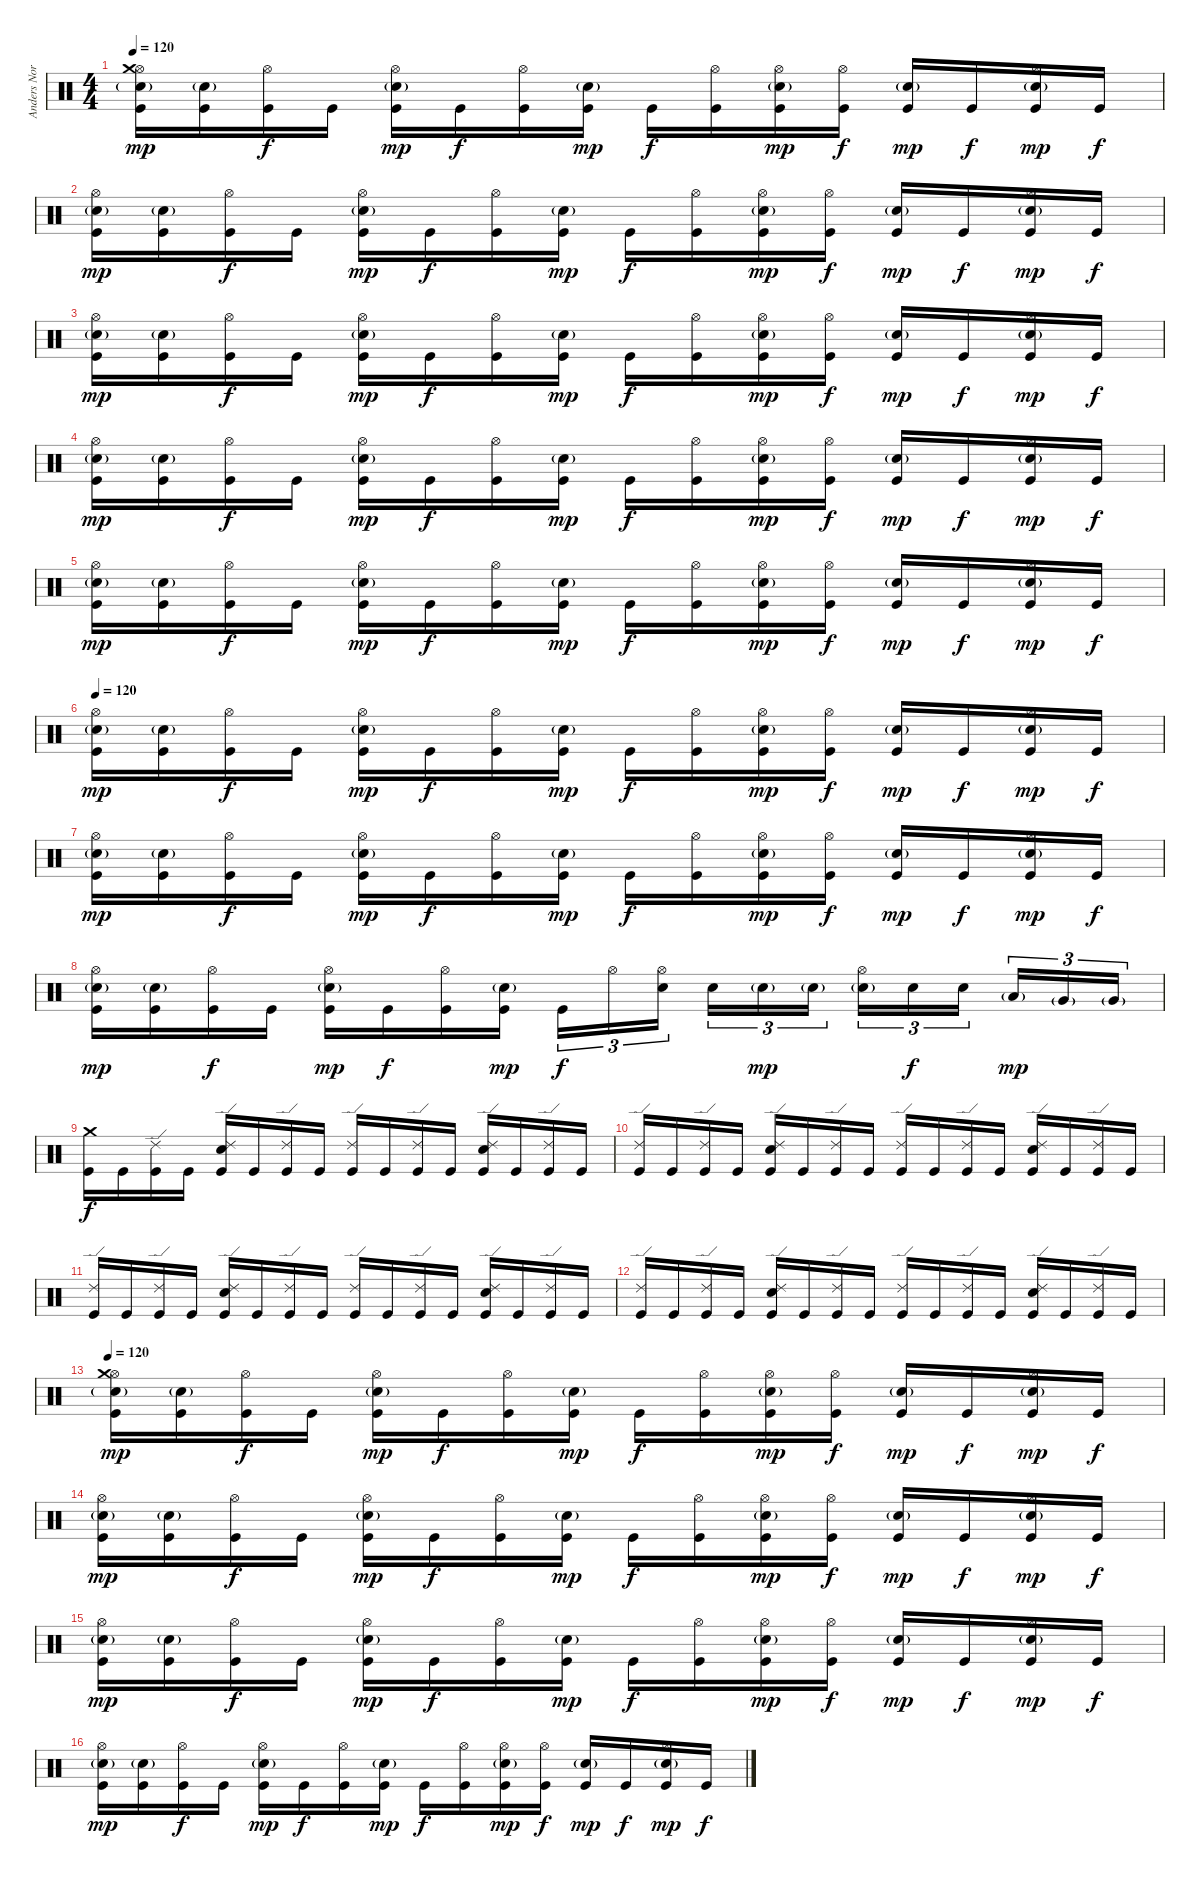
\track ("Anders Nordin" "Anders Nor") {instrument percussion}
\staff {score}
\articulation defaults
\ts (4 4)
\tempo 120
\clef neutral
\ks c
("Snare (hit) 2"{g} "Hi-Hat (open)" "Crash medium (hit)" "Kick (hit)").16{dy mp} ("Snare (hit) 2"{g} "Kick (hit)").16 ("Hi-Hat (open)" "Kick (hit)").16{dy f} "Kick (hit)".16 ("Snare (hit) 2"{g} "Hi-Hat (open)" "Kick (hit)").16{dy mp} "Kick (hit)".16{dy f} ("Hi-Hat (open)" "Kick (hit)").16 ("Snare (hit) 2"{g} "Kick (hit)").16{dy mp} "Kick (hit)".16{dy f} ("Hi-Hat (open)" "Kick (hit)").16 ("Snare (hit) 2"{g} "Hi-Hat (open)" "Kick (hit)").16{dy mp} ("Hi-Hat (open)" "Kick (hit)").16{dy f} ("Snare (hit) 2"{g} "Kick (hit)").16{dy mp} "Kick (hit)".16{dy f} ("Snare (hit) 2"{g} "Hi-Hat (open)" "Kick (hit)").16{dy mp} "Kick (hit)".16{dy f} |
("Snare (hit) 2"{g} "Hi-Hat (open)" "Kick (hit)").16{dy mp} ("Snare (hit) 2"{g} "Kick (hit)").16 ("Hi-Hat (open)" "Kick (hit)").16{dy f} "Kick (hit)".16 ("Snare (hit) 2"{g} "Hi-Hat (open)" "Kick (hit)").16{dy mp} "Kick (hit)".16{dy f} ("Hi-Hat (open)" "Kick (hit)").16 ("Snare (hit) 2"{g} "Kick (hit)").16{dy mp} "Kick (hit)".16{dy f} ("Hi-Hat (open)" "Kick (hit)").16 ("Snare (hit) 2"{g} "Hi-Hat (open)" "Kick (hit)").16{dy mp} ("Hi-Hat (open)" "Kick (hit)").16{dy f} ("Snare (hit) 2"{g} "Kick (hit)").16{dy mp} "Kick (hit)".16{dy f} ("Snare (hit) 2"{g} "Hi-Hat (open)" "Kick (hit)").16{dy mp} "Kick (hit)".16{dy f} |
("Snare (hit) 2"{g} "Hi-Hat (open)" "Kick (hit)").16{dy mp} ("Snare (hit) 2"{g} "Kick (hit)").16 ("Hi-Hat (open)" "Kick (hit)").16{dy f} "Kick (hit)".16 ("Snare (hit) 2"{g} "Hi-Hat (open)" "Kick (hit)").16{dy mp} "Kick (hit)".16{dy f} ("Hi-Hat (open)" "Kick (hit)").16 ("Snare (hit) 2"{g} "Kick (hit)").16{dy mp} "Kick (hit)".16{dy f} ("Hi-Hat (open)" "Kick (hit)").16 ("Snare (hit) 2"{g} "Hi-Hat (open)" "Kick (hit)").16{dy mp} ("Hi-Hat (open)" "Kick (hit)").16{dy f} ("Snare (hit) 2"{g} "Kick (hit)").16{dy mp} "Kick (hit)".16{dy f} ("Snare (hit) 2"{g} "Hi-Hat (open)" "Kick (hit)").16{dy mp} "Kick (hit)".16{dy f} |
("Snare (hit) 2"{g} "Hi-Hat (open)" "Kick (hit)").16{dy mp} ("Snare (hit) 2"{g} "Kick (hit)").16 ("Hi-Hat (open)" "Kick (hit)").16{dy f} "Kick (hit)".16 ("Snare (hit) 2"{g} "Hi-Hat (open)" "Kick (hit)").16{dy mp} "Kick (hit)".16{dy f} ("Hi-Hat (open)" "Kick (hit)").16 ("Snare (hit) 2"{g} "Kick (hit)").16{dy mp} "Kick (hit)".16{dy f} ("Hi-Hat (open)" "Kick (hit)").16 ("Snare (hit) 2"{g} "Hi-Hat (open)" "Kick (hit)").16{dy mp} ("Hi-Hat (open)" "Kick (hit)").16{dy f} ("Snare (hit) 2"{g} "Kick (hit)").16{dy mp} "Kick (hit)".16{dy f} ("Snare (hit) 2"{g} "Hi-Hat (open)" "Kick (hit)").16{dy mp} "Kick (hit)".16{dy f} |
("Snare (hit) 2"{g} "Hi-Hat (open)" "Kick (hit)").16{dy mp} ("Snare (hit) 2"{g} "Kick (hit)").16 ("Hi-Hat (open)" "Kick (hit)").16{dy f} "Kick (hit)".16 ("Snare (hit) 2"{g} "Hi-Hat (open)" "Kick (hit)").16{dy mp} "Kick (hit)".16{dy f} ("Hi-Hat (open)" "Kick (hit)").16 ("Snare (hit) 2"{g} "Kick (hit)").16{dy mp} "Kick (hit)".16{dy f} ("Hi-Hat (open)" "Kick (hit)").16 ("Snare (hit) 2"{g} "Hi-Hat (open)" "Kick (hit)").16{dy mp} ("Hi-Hat (open)" "Kick (hit)").16{dy f} ("Snare (hit) 2"{g} "Kick (hit)").16{dy mp} "Kick (hit)".16{dy f} ("Snare (hit) 2"{g} "Hi-Hat (open)" "Kick (hit)").16{dy mp} "Kick (hit)".16{dy f} |
\tempo 120
("Snare (hit) 2"{g} "Hi-Hat (open)" "Kick (hit)").16{dy mp} ("Snare (hit) 2"{g} "Kick (hit)").16 ("Hi-Hat (open)" "Kick (hit)").16{dy f} "Kick (hit)".16 ("Snare (hit) 2"{g} "Hi-Hat (open)" "Kick (hit)").16{dy mp} "Kick (hit)".16{dy f} ("Hi-Hat (open)" "Kick (hit)").16 ("Snare (hit) 2"{g} "Kick (hit)").16{dy mp} "Kick (hit)".16{dy f} ("Hi-Hat (open)" "Kick (hit)").16 ("Snare (hit) 2"{g} "Hi-Hat (open)" "Kick (hit)").16{dy mp} ("Hi-Hat (open)" "Kick (hit)").16{dy f} ("Snare (hit) 2"{g} "Kick (hit)").16{dy mp} "Kick (hit)".16{dy f} ("Snare (hit) 2"{g} "Hi-Hat (open)" "Kick (hit)").16{dy mp} "Kick (hit)".16{dy f} |
("Snare (hit) 2"{g} "Hi-Hat (open)" "Kick (hit)").16{dy mp} ("Snare (hit) 2"{g} "Kick (hit)").16 ("Hi-Hat (open)" "Kick (hit)").16{dy f} "Kick (hit)".16 ("Snare (hit) 2"{g} "Hi-Hat (open)" "Kick (hit)").16{dy mp} "Kick (hit)".16{dy f} ("Hi-Hat (open)" "Kick (hit)").16 ("Snare (hit) 2"{g} "Kick (hit)").16{dy mp} "Kick (hit)".16{dy f} ("Hi-Hat (open)" "Kick (hit)").16 ("Snare (hit) 2"{g} "Hi-Hat (open)" "Kick (hit)").16{dy mp} ("Hi-Hat (open)" "Kick (hit)").16{dy f} ("Snare (hit) 2"{g} "Kick (hit)").16{dy mp} "Kick (hit)".16{dy f} ("Snare (hit) 2"{g} "Hi-Hat (open)" "Kick (hit)").16{dy mp} "Kick (hit)".16{dy f} |
("Snare (hit) 2"{g} "Hi-Hat (open)" "Kick (hit)").16{dy mp} ("Snare (hit) 2"{g} "Kick (hit)").16 ("Hi-Hat (open)" "Kick (hit)").16{dy f} "Kick (hit)".16 ("Snare (hit) 2"{g} "Hi-Hat (open)" "Kick (hit)").16{dy mp} "Kick (hit)".16{dy f} ("Hi-Hat (open)" "Kick (hit)").16 ("Snare (hit) 2"{g} "Kick (hit)").16{dy mp} "Kick (hit)".16{tu (3 2) dy f} "Hi-Hat (open)".16{tu (3 2)} ("Snare (hit) 2" "Hi-Hat (open)").16{tu (3 2) beam splitsecondary} "Snare (hit) 2".16{tu (3 2)} "Snare (hit) 2"{g}.16{tu (3 2) dy mp} "Snare (hit) 2"{g}.16{tu (3 2)} ("Snare (hit) 2"{g} "Hi-Hat (open)").16{tu (3 2)} "Snare (hit) 2".16{tu (3 2) dy f} "Snare (hit) 2".16{tu (3 2) beam splitsecondary} "Low Tom (hit)"{g}.16{tu (3 2) dy mp} "Very Low Tom (hit)"{g}.16{tu (3 2)} "Very Low Tom (hit)"{g}.16{tu (3 2)} |
("Crash medium (hit)" "Kick (hit)").16{dy f} "Kick (hit)".16 ("Ride (edge) 2" "Kick (hit)").16 "Kick (hit)".16 ("Ride (edge) 2" "Snare (hit) 2" "Kick (hit)").16 "Kick (hit)".16 ("Ride (edge) 2" "Kick (hit)").16 "Kick (hit)".16 ("Ride (edge) 2" "Kick (hit)").16 "Kick (hit)".16 ("Ride (edge) 2" "Kick (hit)").16 "Kick (hit)".16 ("Ride (edge) 2" "Snare (hit) 2" "Kick (hit)").16 "Kick (hit)".16 ("Ride (edge) 2" "Kick (hit)").16 "Kick (hit)".16 |
("Ride (edge) 2" "Kick (hit)").16 "Kick (hit)".16 ("Ride (edge) 2" "Kick (hit)").16 "Kick (hit)".16 ("Ride (edge) 2" "Snare (hit) 2" "Kick (hit)").16 "Kick (hit)".16 ("Ride (edge) 2" "Kick (hit)").16 "Kick (hit)".16 ("Ride (edge) 2" "Kick (hit)").16 "Kick (hit)".16 ("Ride (edge) 2" "Kick (hit)").16 "Kick (hit)".16 ("Ride (edge) 2" "Snare (hit) 2" "Kick (hit)").16 "Kick (hit)".16 ("Ride (edge) 2" "Kick (hit)").16 "Kick (hit)".16 |
("Ride (edge) 2" "Kick (hit)").16 "Kick (hit)".16 ("Ride (edge) 2" "Kick (hit)").16 "Kick (hit)".16 ("Ride (edge) 2" "Snare (hit) 2" "Kick (hit)").16 "Kick (hit)".16 ("Ride (edge) 2" "Kick (hit)").16 "Kick (hit)".16 ("Ride (edge) 2" "Kick (hit)").16 "Kick (hit)".16 ("Ride (edge) 2" "Kick (hit)").16 "Kick (hit)".16 ("Ride (edge) 2" "Snare (hit) 2" "Kick (hit)").16 "Kick (hit)".16 ("Ride (edge) 2" "Kick (hit)").16 "Kick (hit)".16 |
("Ride (edge) 2" "Kick (hit)").16 "Kick (hit)".16 ("Ride (edge) 2" "Kick (hit)").16 "Kick (hit)".16 ("Ride (edge) 2" "Snare (hit) 2" "Kick (hit)").16 "Kick (hit)".16 ("Ride (edge) 2" "Kick (hit)").16 "Kick (hit)".16 ("Ride (edge) 2" "Kick (hit)").16 "Kick (hit)".16 ("Ride (edge) 2" "Kick (hit)").16 "Kick (hit)".16 ("Ride (edge) 2" "Snare (hit) 2" "Kick (hit)").16 "Kick (hit)".16 ("Ride (edge) 2" "Kick (hit)").16 "Kick (hit)".16 |
\tempo 120
("Snare (hit) 2"{g} "Hi-Hat (open)" "Crash medium (hit)" "Kick (hit)").16{dy mp} ("Snare (hit) 2"{g} "Kick (hit)").16 ("Hi-Hat (open)" "Kick (hit)").16{dy f} "Kick (hit)".16 ("Snare (hit) 2"{g} "Hi-Hat (open)" "Kick (hit)").16{dy mp} "Kick (hit)".16{dy f} ("Hi-Hat (open)" "Kick (hit)").16 ("Snare (hit) 2"{g} "Kick (hit)").16{dy mp} "Kick (hit)".16{dy f} ("Hi-Hat (open)" "Kick (hit)").16 ("Snare (hit) 2"{g} "Hi-Hat (open)" "Kick (hit)").16{dy mp} ("Hi-Hat (open)" "Kick (hit)").16{dy f} ("Snare (hit) 2"{g} "Kick (hit)").16{dy mp} "Kick (hit)".16{dy f} ("Snare (hit) 2"{g} "Hi-Hat (open)" "Kick (hit)").16{dy mp} "Kick (hit)".16{dy f} |
("Snare (hit) 2"{g} "Hi-Hat (open)" "Kick (hit)").16{dy mp} ("Snare (hit) 2"{g} "Kick (hit)").16 ("Hi-Hat (open)" "Kick (hit)").16{dy f} "Kick (hit)".16 ("Snare (hit) 2"{g} "Hi-Hat (open)" "Kick (hit)").16{dy mp} "Kick (hit)".16{dy f} ("Hi-Hat (open)" "Kick (hit)").16 ("Snare (hit) 2"{g} "Kick (hit)").16{dy mp} "Kick (hit)".16{dy f} ("Hi-Hat (open)" "Kick (hit)").16 ("Snare (hit) 2"{g} "Hi-Hat (open)" "Kick (hit)").16{dy mp} ("Hi-Hat (open)" "Kick (hit)").16{dy f} ("Snare (hit) 2"{g} "Kick (hit)").16{dy mp} "Kick (hit)".16{dy f} ("Snare (hit) 2"{g} "Hi-Hat (open)" "Kick (hit)").16{dy mp} "Kick (hit)".16{dy f} |
("Snare (hit) 2"{g} "Hi-Hat (open)" "Kick (hit)").16{dy mp} ("Snare (hit) 2"{g} "Kick (hit)").16 ("Hi-Hat (open)" "Kick (hit)").16{dy f} "Kick (hit)".16 ("Snare (hit) 2"{g} "Hi-Hat (open)" "Kick (hit)").16{dy mp} "Kick (hit)".16{dy f} ("Hi-Hat (open)" "Kick (hit)").16 ("Snare (hit) 2"{g} "Kick (hit)").16{dy mp} "Kick (hit)".16{dy f} ("Hi-Hat (open)" "Kick (hit)").16 ("Snare (hit) 2"{g} "Hi-Hat (open)" "Kick (hit)").16{dy mp} ("Hi-Hat (open)" "Kick (hit)").16{dy f} ("Snare (hit) 2"{g} "Kick (hit)").16{dy mp} "Kick (hit)".16{dy f} ("Snare (hit) 2"{g} "Hi-Hat (open)" "Kick (hit)").16{dy mp} "Kick (hit)".16{dy f} |
("Snare (hit) 2"{g} "Hi-Hat (open)" "Kick (hit)").16{dy mp} ("Snare (hit) 2"{g} "Kick (hit)").16 ("Hi-Hat (open)" "Kick (hit)").16{dy f} "Kick (hit)".16 ("Snare (hit) 2"{g} "Hi-Hat (open)" "Kick (hit)").16{dy mp} "Kick (hit)".16{dy f} ("Hi-Hat (open)" "Kick (hit)").16 ("Snare (hit) 2"{g} "Kick (hit)").16{dy mp} "Kick (hit)".16{dy f} ("Hi-Hat (open)" "Kick (hit)").16 ("Snare (hit) 2"{g} "Hi-Hat (open)" "Kick (hit)").16{dy mp} ("Hi-Hat (open)" "Kick (hit)").16{dy f} ("Snare (hit) 2"{g} "Kick (hit)").16{dy mp} "Kick (hit)".16{dy f} ("Snare (hit) 2"{g} "Hi-Hat (open)" "Kick (hit)").16{dy mp} "Kick (hit)".16{dy f}
